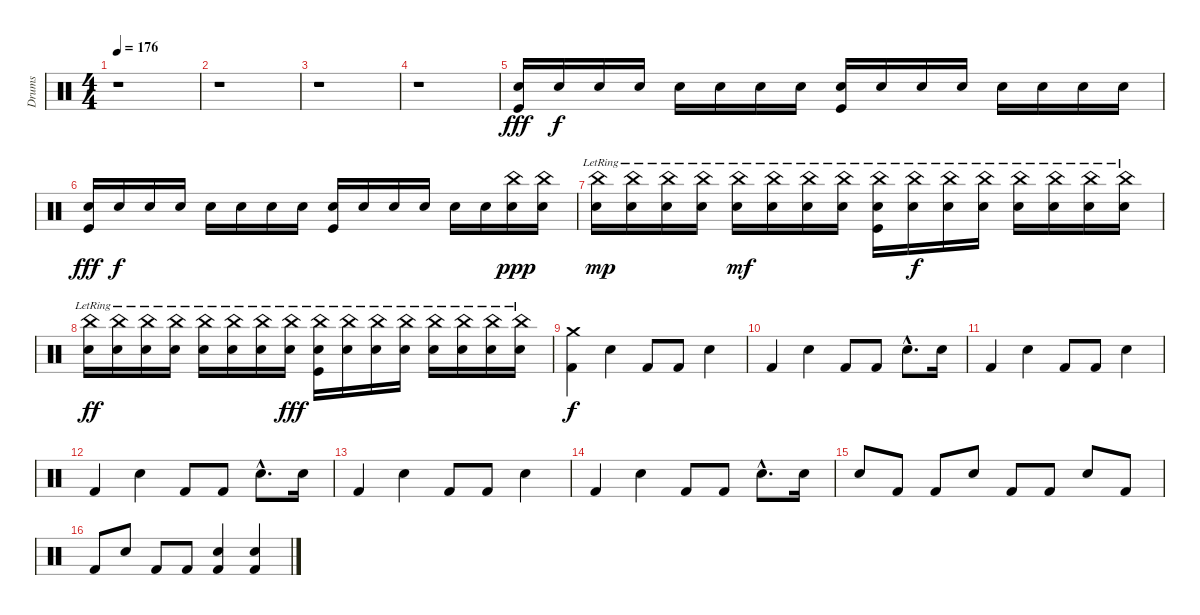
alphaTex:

\track ("Drums" "Drums") {instrument percussion}
\staff {score}
\articulation defaults
\ts (4 4)
\tempo 176
\clef neutral
\ks c
r.1{dy fff} |
r.1 |
r.1 |
r.1 |
("Snare (hit) 2" "Kick (hit)").16 "Snare (hit) 2".16{dy f} "Snare (hit) 2".16 "Snare (hit) 2".16 "Snare (hit) 2".16 "Snare (hit) 2".16 "Snare (hit) 2".16 "Snare (hit) 2".16 ("Snare (hit) 2" "Kick (hit)").16 "Snare (hit) 2".16 "Snare (hit) 2".16 "Snare (hit) 2".16 "Snare (hit) 2".16 "Snare (hit) 2".16 "Snare (hit) 2".16 "Snare (hit) 2".16 |
("Snare (hit) 2" "Kick (hit)").16{dy fff} "Snare (hit) 2".16{dy f} "Snare (hit) 2".16 "Snare (hit) 2".16 "Snare (hit) 2".16 "Snare (hit) 2".16 "Snare (hit) 2".16 "Snare (hit) 2".16 ("Snare (hit) 2" "Kick (hit)").16 "Snare (hit) 2".16 "Snare (hit) 2".16 "Snare (hit) 2".16 "Snare (hit) 2".16 "Snare (hit) 2".16 ("China (hit)" "Snare (hit) 2").16{dy ppp} ("China (hit)" "Snare (hit) 2").16 |
("China (hit)"{lr} "Snare (hit) 2").16{dy mp} ("China (hit)"{lr} "Snare (hit) 2").16 ("China (hit)"{lr} "Snare (hit) 2").16 ("China (hit)"{lr} "Snare (hit) 2").16 ("China (hit)"{lr} "Snare (hit) 2").16{dy mf} ("China (hit)"{lr} "Snare (hit) 2").16 ("China (hit)"{lr} "Snare (hit) 2").16 ("China (hit)"{lr} "Snare (hit) 2").16 ("China (hit)"{lr} "Snare (hit) 2" "Kick (hit)").16 ("China (hit)"{lr} "Snare (hit) 2").16{dy f} ("China (hit)"{lr} "Snare (hit) 2").16 ("China (hit)"{lr} "Snare (hit) 2").16 ("China (hit)"{lr} "Snare (hit) 2").16 ("China (hit)"{lr} "Snare (hit) 2").16 ("China (hit)"{lr} "Snare (hit) 2").16 ("China (hit)"{lr} "Snare (hit) 2").16 |
("China (hit)"{lr} "Snare (hit) 2").16{dy ff} ("China (hit)"{lr} "Snare (hit) 2").16 ("China (hit)"{lr} "Snare (hit) 2").16 ("China (hit)"{lr} "Snare (hit) 2").16 ("China (hit)"{lr} "Snare (hit) 2").16 ("China (hit)"{lr} "Snare (hit) 2").16 ("China (hit)"{lr} "Snare (hit) 2").16 ("China (hit)"{lr} "Snare (hit) 2").16{dy fff} ("China (hit)"{lr} "Snare (hit) 2" "Kick (hit)").16 ("China (hit)"{lr} "Snare (hit) 2").16 ("China (hit)"{lr} "Snare (hit) 2").16 ("China (hit)"{lr} "Snare (hit) 2").16 ("China (hit)"{lr} "Snare (hit) 2").16 ("China (hit)"{lr} "Snare (hit) 2").16 ("China (hit)"{lr} "Snare (hit) 2").16 ("China (hit)"{lr} "Snare (hit) 2").16 |
("Kick (hit) 2" "Crash medium (hit)").4{dy f volume 15} "Snare (hit) 2".4 "Kick (hit) 2".8 "Kick (hit) 2".8 "Snare (hit) 2".4 |
"Kick (hit) 2".4 "Snare (hit) 2".4 "Kick (hit) 2".8 "Kick (hit) 2".8 "Snare (hit) 2"{hac}.8{d} "Snare (hit) 2".16 |
"Kick (hit) 2".4 "Snare (hit) 2".4 "Kick (hit) 2".8 "Kick (hit) 2".8 "Snare (hit) 2".4 |
"Kick (hit) 2".4 "Snare (hit) 2".4 "Kick (hit) 2".8 "Kick (hit) 2".8 "Snare (hit) 2"{hac}.8{d} "Snare (hit) 2".16 |
"Kick (hit) 2".4 "Snare (hit) 2".4 "Kick (hit) 2".8 "Kick (hit) 2".8 "Snare (hit) 2".4 |
"Kick (hit) 2".4 "Snare (hit) 2".4 "Kick (hit) 2".8 "Kick (hit) 2".8 "Snare (hit) 2"{hac}.8{d} "Snare (hit) 2".16 |
"Snare (hit) 2".8 "Kick (hit) 2".8 "Kick (hit) 2".8 "Snare (hit) 2".8 "Kick (hit) 2".8 "Kick (hit) 2".8 "Snare (hit) 2".8 "Kick (hit) 2".8 |
"Kick (hit) 2".8 "Snare (hit) 2".8 "Kick (hit) 2".8 "Kick (hit) 2".8 ("Kick (hit) 2" "Snare (hit) 2").4 ("Kick (hit) 2" "Snare (hit) 2").4
